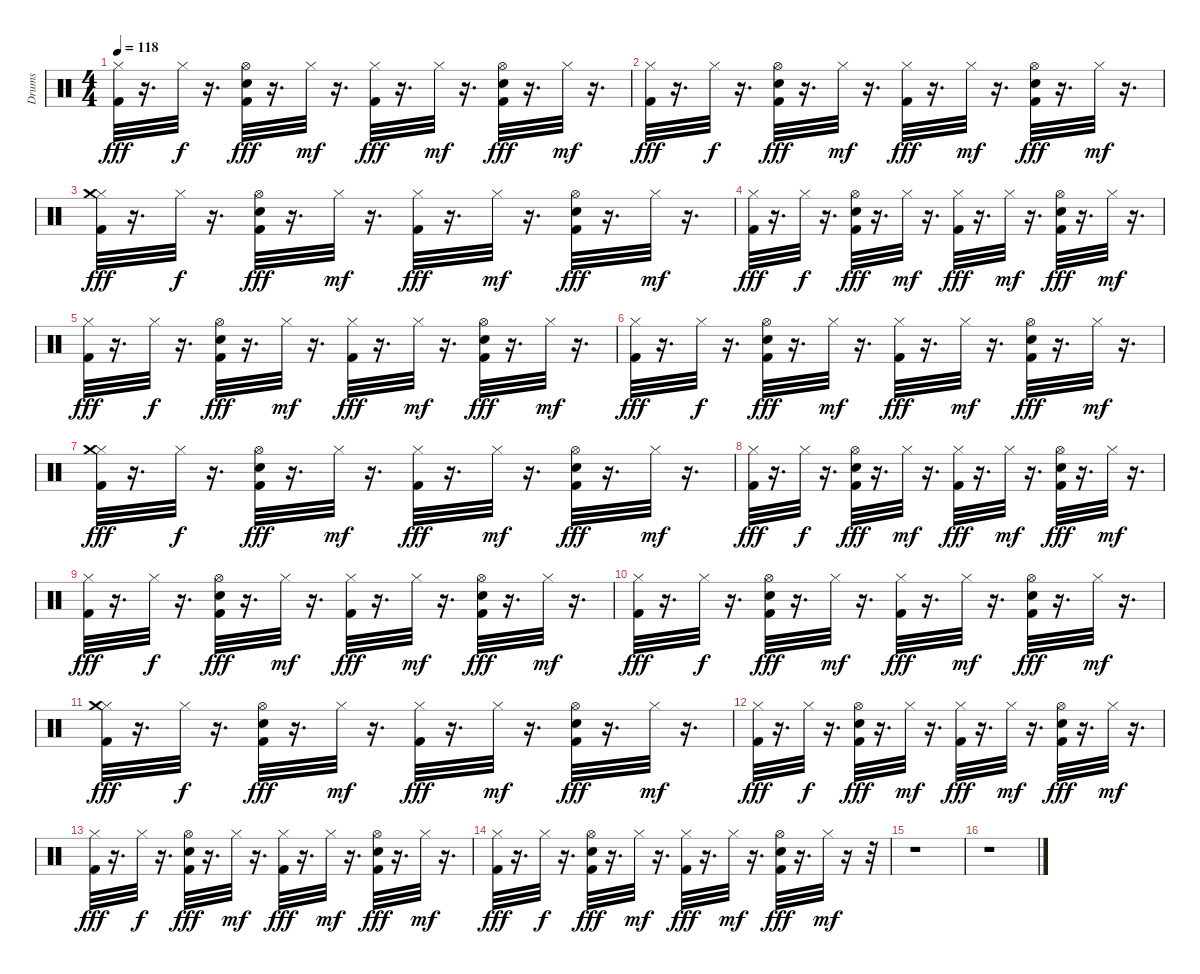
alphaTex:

\track ("Drums" "Drums") {instrument percussion}
\staff {score}
\articulation defaults
\ts (4 4)
\tempo 118
\clef neutral
\ks c
("Hi-Hat (closed)" "Kick (hit) 2").32{dy fff} r.16{d} "Hi-Hat (closed)".32{dy f} r.16{d} ("Hi-Hat (open)" "Kick (hit) 2" "Electric Snare (hit)").32{dy fff} r.16{d} "Hi-Hat (closed)".32{dy mf} r.16{d} ("Hi-Hat (closed)" "Kick (hit) 2").32{dy fff} r.16{d} "Hi-Hat (closed)".32{dy mf} r.16{d} ("Hi-Hat (open)" "Kick (hit) 2" "Electric Snare (hit)").32{dy fff} r.16{d} "Hi-Hat (closed)".32{dy mf} r.16{d} |
("Hi-Hat (closed)" "Kick (hit) 2").32{dy fff} r.16{d} "Hi-Hat (closed)".32{dy f} r.16{d} ("Hi-Hat (open)" "Kick (hit) 2" "Electric Snare (hit)").32{dy fff} r.16{d} "Hi-Hat (closed)".32{dy mf} r.16{d} ("Hi-Hat (closed)" "Kick (hit) 2").32{dy fff} r.16{d} "Hi-Hat (closed)".32{dy mf} r.16{d} ("Hi-Hat (open)" "Kick (hit) 2" "Electric Snare (hit)").32{dy fff} r.16{d} "Hi-Hat (closed)".32{dy mf} r.16{d} |
("Hi-Hat (closed)" "Crash medium (hit)" "Kick (hit) 2").32{dy fff} r.16{d} "Hi-Hat (closed)".32{dy f} r.16{d} ("Hi-Hat (open)" "Kick (hit) 2" "Electric Snare (hit)").32{dy fff} r.16{d} "Hi-Hat (closed)".32{dy mf} r.16{d} ("Hi-Hat (closed)" "Kick (hit) 2").32{dy fff} r.16{d} "Hi-Hat (closed)".32{dy mf} r.16{d} ("Hi-Hat (open)" "Kick (hit) 2" "Electric Snare (hit)").32{dy fff} r.16{d} "Hi-Hat (closed)".32{dy mf} r.16{d} |
("Hi-Hat (closed)" "Kick (hit) 2").32{dy fff} r.16{d} "Hi-Hat (closed)".32{dy f} r.16{d} ("Hi-Hat (open)" "Kick (hit) 2" "Electric Snare (hit)").32{dy fff} r.16{d} "Hi-Hat (closed)".32{dy mf} r.16{d} ("Hi-Hat (closed)" "Kick (hit) 2").32{dy fff} r.16{d} "Hi-Hat (closed)".32{dy mf} r.16{d} ("Hi-Hat (open)" "Kick (hit) 2" "Electric Snare (hit)").32{dy fff} r.16{d} "Hi-Hat (closed)".32{dy mf} r.16{d} |
("Hi-Hat (closed)" "Kick (hit) 2").32{dy fff} r.16{d} "Hi-Hat (closed)".32{dy f} r.16{d} ("Hi-Hat (open)" "Kick (hit) 2" "Electric Snare (hit)").32{dy fff} r.16{d} "Hi-Hat (closed)".32{dy mf} r.16{d} ("Hi-Hat (closed)" "Kick (hit) 2").32{dy fff} r.16{d} "Hi-Hat (closed)".32{dy mf} r.16{d} ("Hi-Hat (open)" "Kick (hit) 2" "Electric Snare (hit)").32{dy fff} r.16{d} "Hi-Hat (closed)".32{dy mf} r.16{d} |
("Hi-Hat (closed)" "Kick (hit) 2").32{dy fff} r.16{d} "Hi-Hat (closed)".32{dy f} r.16{d} ("Hi-Hat (open)" "Kick (hit) 2" "Electric Snare (hit)").32{dy fff} r.16{d} "Hi-Hat (closed)".32{dy mf} r.16{d} ("Hi-Hat (closed)" "Kick (hit) 2").32{dy fff} r.16{d} "Hi-Hat (closed)".32{dy mf} r.16{d} ("Hi-Hat (open)" "Kick (hit) 2" "Electric Snare (hit)").32{dy fff} r.16{d} "Hi-Hat (closed)".32{dy mf} r.16{d} |
("Hi-Hat (closed)" "Crash medium (hit)" "Kick (hit) 2").32{dy fff} r.16{d} "Hi-Hat (closed)".32{dy f} r.16{d} ("Hi-Hat (open)" "Kick (hit) 2" "Electric Snare (hit)").32{dy fff} r.16{d} "Hi-Hat (closed)".32{dy mf} r.16{d} ("Hi-Hat (closed)" "Kick (hit) 2").32{dy fff} r.16{d} "Hi-Hat (closed)".32{dy mf} r.16{d} ("Hi-Hat (open)" "Kick (hit) 2" "Electric Snare (hit)").32{dy fff} r.16{d} "Hi-Hat (closed)".32{dy mf} r.16{d} |
("Hi-Hat (closed)" "Kick (hit) 2").32{dy fff} r.16{d} "Hi-Hat (closed)".32{dy f} r.16{d} ("Hi-Hat (open)" "Kick (hit) 2" "Electric Snare (hit)").32{dy fff} r.16{d} "Hi-Hat (closed)".32{dy mf} r.16{d} ("Hi-Hat (closed)" "Kick (hit) 2").32{dy fff} r.16{d} "Hi-Hat (closed)".32{dy mf} r.16{d} ("Hi-Hat (open)" "Kick (hit) 2" "Electric Snare (hit)").32{dy fff} r.16{d} "Hi-Hat (closed)".32{dy mf} r.16{d} |
("Hi-Hat (closed)" "Kick (hit) 2").32{dy fff} r.16{d} "Hi-Hat (closed)".32{dy f} r.16{d} ("Hi-Hat (open)" "Kick (hit) 2" "Electric Snare (hit)").32{dy fff} r.16{d} "Hi-Hat (closed)".32{dy mf} r.16{d} ("Hi-Hat (closed)" "Kick (hit) 2").32{dy fff} r.16{d} "Hi-Hat (closed)".32{dy mf} r.16{d} ("Hi-Hat (open)" "Kick (hit) 2" "Electric Snare (hit)").32{dy fff} r.16{d} "Hi-Hat (closed)".32{dy mf} r.16{d} |
("Hi-Hat (closed)" "Kick (hit) 2").32{dy fff} r.16{d} "Hi-Hat (closed)".32{dy f} r.16{d} ("Hi-Hat (open)" "Kick (hit) 2" "Electric Snare (hit)").32{dy fff} r.16{d} "Hi-Hat (closed)".32{dy mf} r.16{d} ("Hi-Hat (closed)" "Kick (hit) 2").32{dy fff} r.16{d} "Hi-Hat (closed)".32{dy mf} r.16{d} ("Hi-Hat (open)" "Kick (hit) 2" "Electric Snare (hit)").32{dy fff} r.16{d} "Hi-Hat (closed)".32{dy mf} r.16{d} |
("Hi-Hat (closed)" "Crash medium (hit)" "Kick (hit) 2").32{dy fff} r.16{d} "Hi-Hat (closed)".32{dy f} r.16{d} ("Hi-Hat (open)" "Kick (hit) 2" "Electric Snare (hit)").32{dy fff} r.16{d} "Hi-Hat (closed)".32{dy mf} r.16{d} ("Hi-Hat (closed)" "Kick (hit) 2").32{dy fff} r.16{d} "Hi-Hat (closed)".32{dy mf} r.16{d} ("Hi-Hat (open)" "Kick (hit) 2" "Electric Snare (hit)").32{dy fff} r.16{d} "Hi-Hat (closed)".32{dy mf} r.16{d} |
("Hi-Hat (closed)" "Kick (hit) 2").32{dy fff} r.16{d} "Hi-Hat (closed)".32{dy f} r.16{d} ("Hi-Hat (open)" "Kick (hit) 2" "Electric Snare (hit)").32{dy fff} r.16{d} "Hi-Hat (closed)".32{dy mf} r.16{d} ("Hi-Hat (closed)" "Kick (hit) 2").32{dy fff} r.16{d} "Hi-Hat (closed)".32{dy mf} r.16{d} ("Hi-Hat (open)" "Kick (hit) 2" "Electric Snare (hit)").32{dy fff} r.16{d} "Hi-Hat (closed)".32{dy mf} r.16{d} |
("Hi-Hat (closed)" "Kick (hit) 2").32{dy fff} r.16{d} "Hi-Hat (closed)".32{dy f} r.16{d} ("Hi-Hat (open)" "Kick (hit) 2" "Electric Snare (hit)").32{dy fff} r.16{d} "Hi-Hat (closed)".32{dy mf} r.16{d} ("Hi-Hat (closed)" "Kick (hit) 2").32{dy fff} r.16{d} "Hi-Hat (closed)".32{dy mf} r.16{d} ("Hi-Hat (open)" "Kick (hit) 2" "Electric Snare (hit)").32{dy fff} r.16{d} "Hi-Hat (closed)".32{dy mf} r.16{d} |
("Hi-Hat (closed)" "Kick (hit) 2").32{dy fff} r.16{d} "Hi-Hat (closed)".32{dy f} r.16{d} ("Hi-Hat (open)" "Kick (hit) 2" "Electric Snare (hit)").32{dy fff} r.16{d} "Hi-Hat (closed)".32{dy mf} r.16{d} ("Hi-Hat (closed)" "Kick (hit) 2").32{dy fff} r.16{d} "Hi-Hat (closed)".32{dy mf} r.16{d} ("Hi-Hat (open)" "Kick (hit) 2" "Electric Snare (hit)").32{dy fff} r.16{d} "Hi-Hat (closed)".32{dy mf} r.16 r.32 |
r.1 |
r.1
